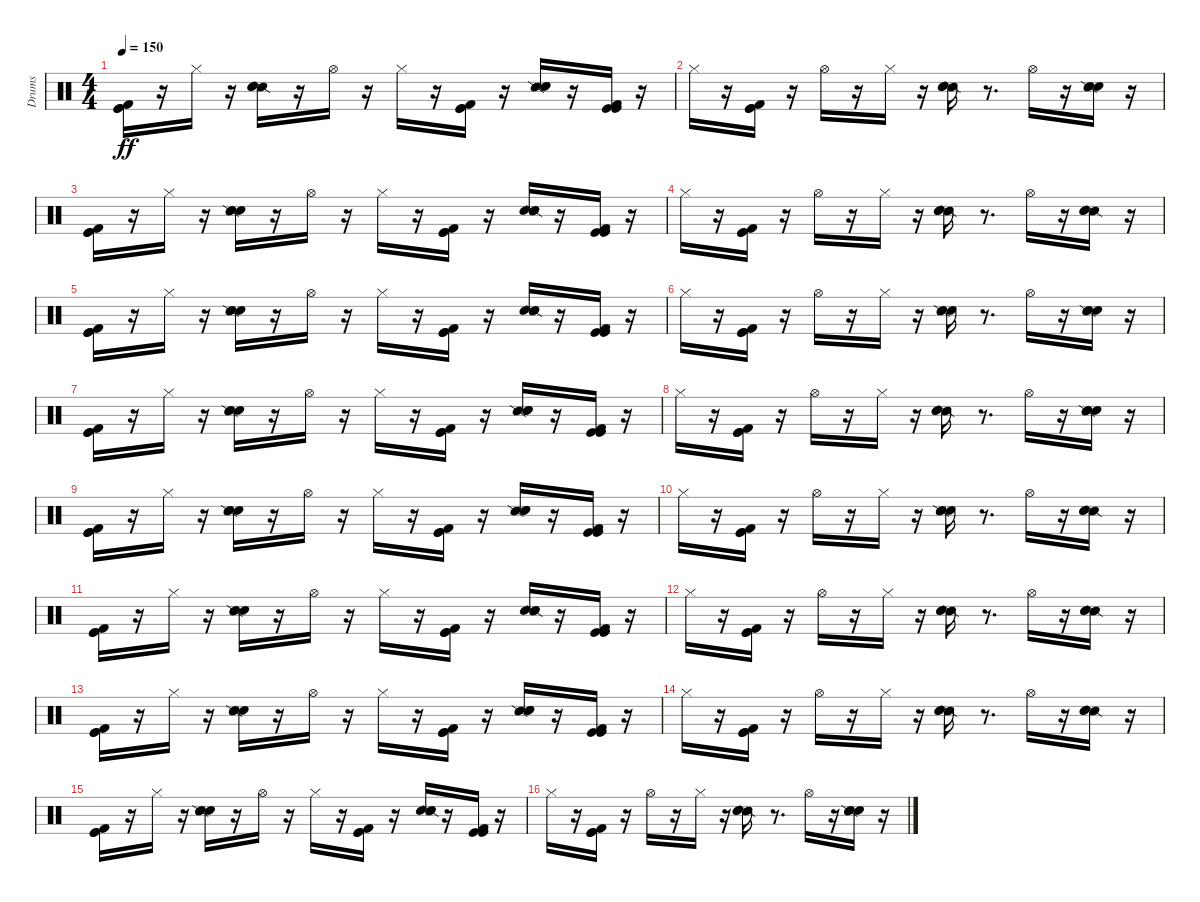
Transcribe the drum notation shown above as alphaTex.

\track ("Drums" "Drums") {instrument percussion}
\staff {score}
\articulation defaults
\ts (4 4)
\tempo 150
\clef neutral
\ks c
("Kick (hit)" "Kick (hit) 2" "Kick (hit)").16{dy ff} r.16 "Hi-Hat (closed)".16 r.16 ("Snare (side stick) 2" "Metronome (bell)" "Electric Snare (hit)").16 r.16 "Hi-Hat (open)".16 r.16 "Hi-Hat (closed)".16 r.16 ("Kick (hit)" "Kick (hit) 2" "Kick (hit)").16 r.16 ("Snare (side stick) 2" "Metronome (bell)" "Electric Snare (hit)").16 r.16 ("Kick (hit)" "Kick (hit) 2" "Kick (hit)").16 r.16 |
"Hi-Hat (closed)".16 r.16 ("Kick (hit)" "Kick (hit) 2" "Kick (hit)").16 r.16 "Hi-Hat (open)".16 r.16 "Hi-Hat (closed)".16 r.16 ("Snare (side stick) 2" "Metronome (bell)" "Electric Snare (hit)").16 r.8{d} "Hi-Hat (open)".16 r.16 ("Metronome (bell)" "Snare (side stick) 2" "Electric Snare (hit)").16 r.16 |
("Kick (hit)" "Kick (hit) 2" "Kick (hit)").16 r.16 "Hi-Hat (closed)".16 r.16 ("Metronome (bell)" "Snare (side stick) 2" "Electric Snare (hit)").16 r.16 "Hi-Hat (open)".16 r.16 "Hi-Hat (closed)".16 r.16 ("Kick (hit)" "Kick (hit) 2" "Kick (hit)").16 r.16 ("Metronome (bell)" "Snare (side stick) 2" "Electric Snare (hit)").16 r.16 ("Kick (hit)" "Kick (hit) 2" "Kick (hit)").16 r.16 |
"Hi-Hat (closed)".16 r.16 ("Kick (hit)" "Kick (hit) 2" "Kick (hit)").16 r.16 "Hi-Hat (open)".16 r.16 "Hi-Hat (closed)".16 r.16 ("Snare (side stick) 2" "Metronome (bell)" "Electric Snare (hit)").16 r.8{d} "Hi-Hat (open)".16 r.16 ("Snare (side stick) 2" "Metronome (bell)" "Electric Snare (hit)").16 r.16 |
("Kick (hit)" "Kick (hit) 2" "Kick (hit)").16 r.16 "Hi-Hat (closed)".16 r.16 ("Metronome (bell)" "Snare (side stick) 2" "Electric Snare (hit)").16 r.16 "Hi-Hat (open)".16 r.16 "Hi-Hat (closed)".16 r.16 ("Kick (hit)" "Kick (hit) 2" "Kick (hit)").16 r.16 ("Metronome (bell)" "Snare (side stick) 2" "Electric Snare (hit)").16 r.16 ("Kick (hit)" "Kick (hit) 2" "Kick (hit)").16 r.16 |
"Hi-Hat (closed)".16 r.16 ("Kick (hit)" "Kick (hit) 2" "Kick (hit)").16 r.16 "Hi-Hat (open)".16 r.16 "Hi-Hat (closed)".16 r.16 ("Metronome (bell)" "Snare (side stick) 2" "Electric Snare (hit)").16 r.8{d} "Hi-Hat (open)".16 r.16 ("Metronome (bell)" "Snare (side stick) 2" "Electric Snare (hit)").16 r.16 |
("Kick (hit)" "Kick (hit) 2" "Kick (hit)").16 r.16 "Hi-Hat (closed)".16 r.16 ("Metronome (bell)" "Snare (side stick) 2" "Electric Snare (hit)").16 r.16 "Hi-Hat (open)".16 r.16 "Hi-Hat (closed)".16 r.16 ("Kick (hit)" "Kick (hit) 2" "Kick (hit)").16 r.16 ("Snare (side stick) 2" "Metronome (bell)" "Electric Snare (hit)").16 r.16 ("Kick (hit)" "Kick (hit) 2" "Kick (hit)").16 r.16 |
"Hi-Hat (closed)".16 r.16 ("Kick (hit)" "Kick (hit) 2" "Kick (hit)").16 r.16 "Hi-Hat (open)".16 r.16 "Hi-Hat (closed)".16 r.16 ("Snare (side stick) 2" "Metronome (bell)" "Electric Snare (hit)").16 r.8{d} "Hi-Hat (open)".16 r.16 ("Metronome (bell)" "Snare (side stick) 2" "Electric Snare (hit)").16 r.16 |
("Kick (hit)" "Kick (hit) 2" "Kick (hit)").16 r.16 "Hi-Hat (closed)".16 r.16 ("Metronome (bell)" "Snare (side stick) 2" "Electric Snare (hit)").16 r.16 "Hi-Hat (open)".16 r.16 "Hi-Hat (closed)".16 r.16 ("Kick (hit)" "Kick (hit) 2" "Kick (hit)").16 r.16 ("Snare (side stick) 2" "Metronome (bell)" "Electric Snare (hit)").16 r.16 ("Kick (hit)" "Kick (hit) 2" "Kick (hit)").16 r.16 |
"Hi-Hat (closed)".16 r.16 ("Kick (hit)" "Kick (hit) 2" "Kick (hit)").16 r.16 "Hi-Hat (open)".16 r.16 "Hi-Hat (closed)".16 r.16 ("Metronome (bell)" "Snare (side stick) 2" "Electric Snare (hit)").16 r.8{d} "Hi-Hat (open)".16 r.16 ("Snare (side stick) 2" "Metronome (bell)" "Electric Snare (hit)").16 r.16 |
("Kick (hit)" "Kick (hit) 2" "Kick (hit)").16 r.16 "Hi-Hat (closed)".16 r.16 ("Metronome (bell)" "Snare (side stick) 2" "Electric Snare (hit)").16 r.16 "Hi-Hat (open)".16 r.16 "Hi-Hat (closed)".16 r.16 ("Kick (hit)" "Kick (hit) 2" "Kick (hit)").16 r.16 ("Metronome (bell)" "Snare (side stick) 2" "Electric Snare (hit)").16 r.16 ("Kick (hit)" "Kick (hit) 2" "Kick (hit)").16 r.16 |
"Hi-Hat (closed)".16 r.16 ("Kick (hit)" "Kick (hit) 2" "Kick (hit)").16 r.16 "Hi-Hat (open)".16 r.16 "Hi-Hat (closed)".16 r.16 ("Snare (side stick) 2" "Metronome (bell)" "Electric Snare (hit)").16 r.8{d} "Hi-Hat (open)".16 r.16 ("Snare (side stick) 2" "Metronome (bell)" "Electric Snare (hit)").16 r.16 |
("Kick (hit)" "Kick (hit) 2" "Kick (hit)").16 r.16 "Hi-Hat (closed)".16 r.16 ("Metronome (bell)" "Snare (side stick) 2" "Electric Snare (hit)").16 r.16 "Hi-Hat (open)".16 r.16 "Hi-Hat (closed)".16 r.16 ("Kick (hit)" "Kick (hit) 2" "Kick (hit)").16 r.16 ("Snare (side stick) 2" "Metronome (bell)" "Electric Snare (hit)").16 r.16 ("Kick (hit)" "Kick (hit) 2" "Kick (hit)").16 r.16 |
"Hi-Hat (closed)".16 r.16 ("Kick (hit)" "Kick (hit) 2" "Kick (hit)").16 r.16 "Hi-Hat (open)".16 r.16 "Hi-Hat (closed)".16 r.16 ("Snare (side stick) 2" "Metronome (bell)" "Electric Snare (hit)").16 r.8{d} "Hi-Hat (open)".16 r.16 ("Snare (side stick) 2" "Metronome (bell)" "Electric Snare (hit)").16 r.16 |
("Kick (hit)" "Kick (hit) 2" "Kick (hit)").16 r.16 "Hi-Hat (closed)".16 r.16 ("Metronome (bell)" "Snare (side stick) 2" "Electric Snare (hit)").16 r.16 "Hi-Hat (open)".16 r.16 "Hi-Hat (closed)".16 r.16 ("Kick (hit)" "Kick (hit) 2" "Kick (hit)").16 r.16 ("Metronome (bell)" "Snare (side stick) 2" "Electric Snare (hit)").16 r.16 ("Kick (hit)" "Kick (hit) 2" "Kick (hit)").16 r.16 |
"Hi-Hat (closed)".16 r.16 ("Kick (hit)" "Kick (hit) 2" "Kick (hit)").16 r.16 "Hi-Hat (open)".16 r.16 "Hi-Hat (closed)".16 r.16 ("Snare (side stick) 2" "Metronome (bell)" "Electric Snare (hit)").16 r.8{d} "Hi-Hat (open)".16 r.16 ("Metronome (bell)" "Snare (side stick) 2" "Electric Snare (hit)").16 r.16
